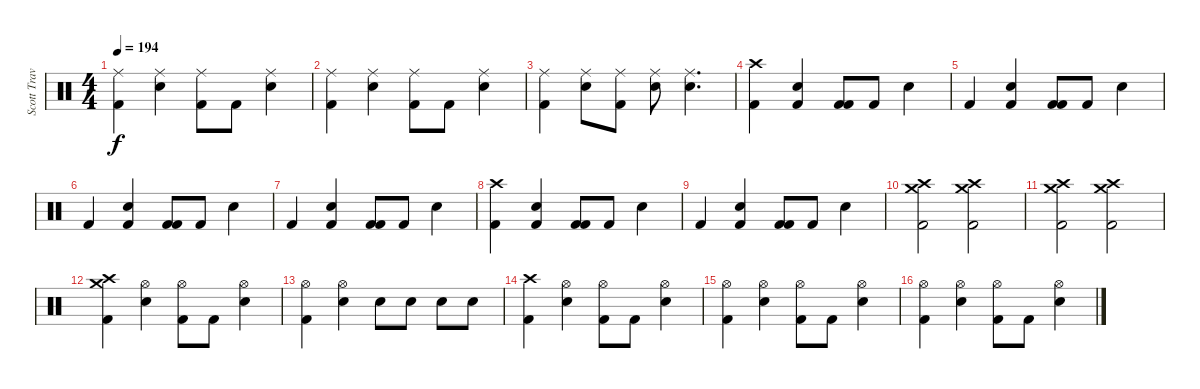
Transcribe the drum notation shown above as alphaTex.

\track ("Scott Travis" "Scott Trav") {instrument percussion}
\staff {score}
\articulation defaults
\ts (4 4)
\tempo 194
\clef neutral
\ks c
("Kick (hit) 2" "Ride (middle)").4{dy f} ("Ride (middle)" "Snare (hit) 2").4 ("Ride (middle)" "Kick (hit) 2").8 "Kick (hit) 2".8 ("Snare (hit) 2" "Ride (middle)").4 |
("Kick (hit) 2" "Ride (middle)").4 ("Ride (middle)" "Snare (hit) 2").4 ("Ride (middle)" "Kick (hit) 2").8 "Kick (hit) 2".8 ("Snare (hit) 2" "Ride (middle)").4 |
("Kick (hit) 2" "Ride (middle)").4 ("Ride (middle)" "Snare (hit) 2").8 ("Ride (middle)" "Kick (hit) 2").8 ("Ride (middle)" "Snare (hit) 2").8 ("Ride (middle)" "Snare (hit) 2").4{d} |
("Kick (hit) 2" "Crash high (hit)").4 ("Kick (hit) 2" "Snare (hit) 2").4 ("Kick (hit) 2" "Kick (hit) 2").8 "Kick (hit) 2".8 "Snare (hit) 2".4 |
"Kick (hit) 2".4 ("Kick (hit) 2" "Snare (hit) 2").4 ("Kick (hit) 2" "Kick (hit) 2").8 "Kick (hit) 2".8 "Snare (hit) 2".4 |
"Kick (hit) 2".4 ("Kick (hit) 2" "Snare (hit) 2").4 ("Kick (hit) 2" "Kick (hit) 2").8 "Kick (hit) 2".8 "Snare (hit) 2".4 |
"Kick (hit) 2".4 ("Kick (hit) 2" "Snare (hit) 2").4 ("Kick (hit) 2" "Kick (hit) 2").8 "Kick (hit) 2".8 "Snare (hit) 2".4 |
("Kick (hit) 2" "Crash high (hit)").4 ("Kick (hit) 2" "Snare (hit) 2").4 ("Kick (hit) 2" "Kick (hit) 2").8 "Kick (hit) 2".8 "Snare (hit) 2".4 |
"Kick (hit) 2".4 ("Kick (hit) 2" "Snare (hit) 2").4 ("Kick (hit) 2" "Kick (hit) 2").8 "Kick (hit) 2".8 "Snare (hit) 2".4 |
("Crash high (hit)" "Crash medium (hit)" "Kick (hit) 2").2 ("Crash medium (hit)" "Crash high (hit)" "Kick (hit) 2").2 |
("Crash high (hit)" "Crash medium (hit)" "Kick (hit) 2").2 ("Crash medium (hit)" "Crash high (hit)" "Kick (hit) 2").2 |
("Kick (hit) 2" "Crash medium (hit)" "Crash high (hit)").4 ("Hi-Hat (open)" "Snare (hit) 2").4 ("Hi-Hat (open)" "Kick (hit) 2").8 "Kick (hit) 2".8 ("Snare (hit) 2" "Hi-Hat (open)").4 |
("Kick (hit) 2" "Hi-Hat (open)").4 ("Hi-Hat (open)" "Snare (hit) 2").4 "Snare (hit) 2".8 "Snare (hit) 2".8 "Snare (hit) 2".8 "Snare (hit) 2".8 |
("Kick (hit) 2" "Crash high (hit)").4 ("Hi-Hat (open)" "Snare (hit) 2").4 ("Hi-Hat (open)" "Kick (hit) 2").8 "Kick (hit) 2".8 ("Snare (hit) 2" "Hi-Hat (open)").4 |
("Kick (hit) 2" "Hi-Hat (open)").4 ("Hi-Hat (open)" "Snare (hit) 2").4 ("Hi-Hat (open)" "Kick (hit) 2").8 "Kick (hit) 2".8 ("Snare (hit) 2" "Hi-Hat (open)").4 |
("Kick (hit) 2" "Hi-Hat (open)").4 ("Hi-Hat (open)" "Snare (hit) 2").4 ("Hi-Hat (open)" "Kick (hit) 2").8 "Kick (hit) 2".8 ("Snare (hit) 2" "Hi-Hat (open)").4
